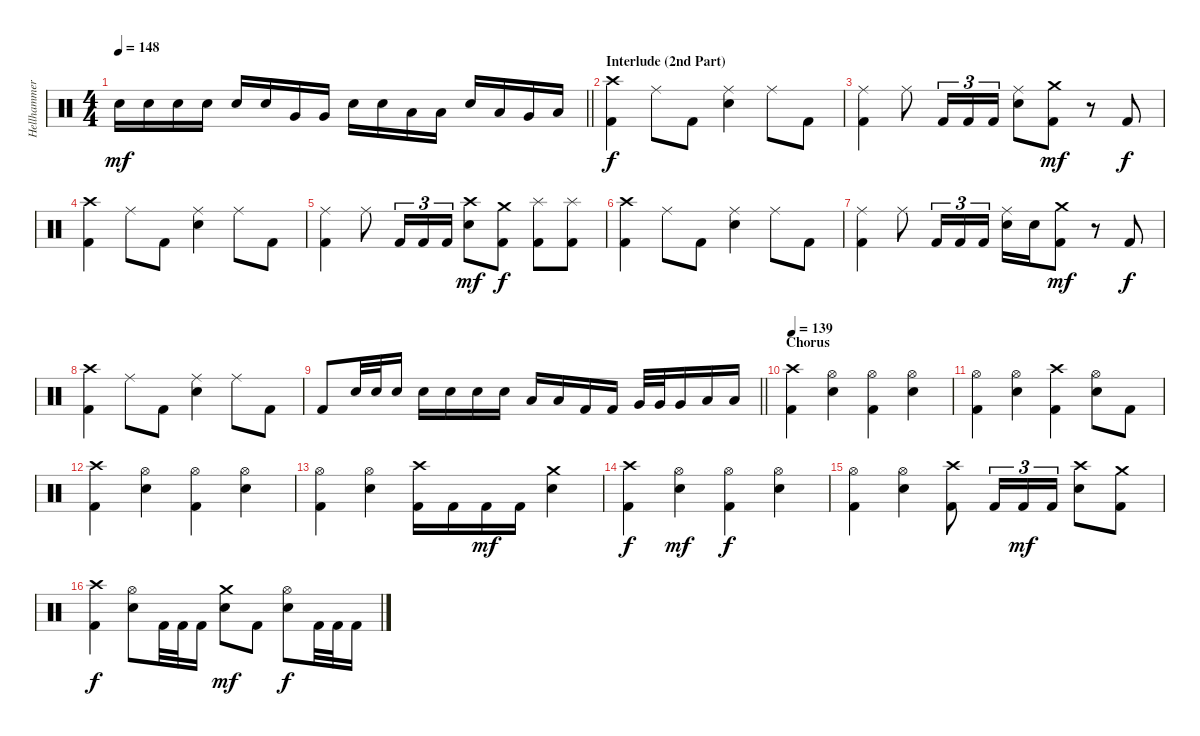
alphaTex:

\track ("Hellhammer" "Hellhammer") {instrument percussion}
\staff {score}
\articulation defaults
\ts (4 4)
\tempo 148
\clef neutral
\barLineRight lightlight
\ks c "Snare (hit) 2".16{dy mf} "Snare (hit) 2".16 "Snare (hit) 2".16 "Snare (hit) 2".16 "Snare (hit) 2".16 "Snare (hit) 2".16 "Very Low Tom (hit)".16 "Very Low Tom (hit)".16 "Snare (hit) 2".16 "Snare (hit) 2".16 "Low Tom (hit)".16 "Low Tom (hit)".16 "Snare (hit) 2".16 "Low Tom (hit)".16 "Very Low Tom (hit)".16 "Low Floor Tom (hit)".16
|
\section ("" "Interlude (2nd Part)")
("Crash high (hit)" "Kick (hit) 2").4{dy f} "Ride (middle)".8 "Kick (hit) 2".8 ("Ride (middle)" "Snare (hit) 2").4 "Ride (middle)".8 "Kick (hit) 2".8 |
("Ride (middle)" "Kick (hit) 2").4 "Ride (middle)".8 "Kick (hit) 2".16{tu (3 2)} "Kick (hit) 2".16{tu (3 2)} "Kick (hit) 2".16{tu (3 2)} ("Ride (middle)" "Snare (hit) 2").8 ("Crash medium (hit)" "Kick (hit) 2").8{dy mf} r.8 "Kick (hit) 2".8{dy f} |
("Crash high (hit)" "Kick (hit) 2").4 "Ride (middle)".8 "Kick (hit) 2".8 ("Ride (middle)" "Snare (hit) 2").4 "Ride (middle)".8 "Kick (hit) 2".8 |
("Ride (middle)" "Kick (hit) 2").4 "Ride (middle)".8 "Kick (hit) 2".16{tu (3 2)} "Kick (hit) 2".16{tu (3 2)} "Kick (hit) 2".16{tu (3 2)} ("Crash high (hit)" "Snare (hit) 2").8{dy mf} ("Crash medium (hit)" "Kick (hit) 2").8{dy f} ("Splash (hit)" "Kick (hit) 2").8 ("Splash (hit)" "Kick (hit) 2").8 |
("Crash high (hit)" "Kick (hit) 2").4 "Ride (middle)".8 "Kick (hit) 2".8 ("Ride (middle)" "Snare (hit) 2").4 "Ride (middle)".8 "Kick (hit) 2".8 |
("Ride (middle)" "Kick (hit) 2").4 "Ride (middle)".8 "Kick (hit) 2".16{tu (3 2)} "Kick (hit) 2".16{tu (3 2)} "Kick (hit) 2".16{tu (3 2)} ("Ride (middle)" "Snare (hit) 2").16 "Snare (hit) 2".16 ("Crash medium (hit)" "Kick (hit) 2").8{dy mf} r.8 "Kick (hit) 2".8{dy f} |
("Crash high (hit)" "Kick (hit) 2").4 "Ride (middle)".8 "Kick (hit) 2".8 ("Ride (middle)" "Snare (hit) 2").4 "Ride (middle)".8 "Kick (hit) 2".8 |
\barLineRight lightlight "Kick (hit) 2".8 "Snare (hit) 2".32 "Snare (hit) 2".32 "Snare (hit) 2".16 "Snare (hit) 2".16 "Snare (hit) 2".16 "Snare (hit) 2".16 "Snare (hit) 2".16 "Low Tom (hit)".16 "Low Tom (hit)".16 "Kick (hit) 2".16 "Kick (hit) 2".16 "Very Low Tom (hit)".32 "Very Low Tom (hit)".32 "Very Low Tom (hit)".16 "Low Floor Tom (hit)".16 "Low Floor Tom (hit)".16
|
\section ("" "Chorus")
\tempo 139
("Crash high (hit)" "Kick (hit) 2").4 ("Hi-Hat (open)" "Snare (hit) 2").4 ("Hi-Hat (open)" "Kick (hit) 2").4 ("Hi-Hat (open)" "Snare (hit) 2").4 |
("Hi-Hat (open)" "Kick (hit) 2").4 ("Hi-Hat (open)" "Snare (hit) 2").4 ("Crash high (hit)" "Kick (hit) 2").4 ("Hi-Hat (open)" "Snare (hit) 2").8 "Kick (hit) 2".8 |
("Crash high (hit)" "Kick (hit) 2").4 ("Hi-Hat (open)" "Snare (hit) 2").4 ("Hi-Hat (open)" "Kick (hit) 2").4 ("Hi-Hat (open)" "Snare (hit) 2").4 |
("Hi-Hat (open)" "Kick (hit) 2").4 ("Hi-Hat (open)" "Snare (hit) 2").4 ("Crash high (hit)" "Kick (hit) 2").16 "Kick (hit) 2".16 "Kick (hit) 2".16{dy mf} "Kick (hit) 2".16 ("Crash medium (hit)" "Snare (hit) 2").4 |
("Crash high (hit)" "Kick (hit) 2").4{dy f} ("Hi-Hat (open)" "Snare (hit) 2").4{dy mf} ("Hi-Hat (open)" "Kick (hit) 2").4{dy f} ("Hi-Hat (open)" "Snare (hit) 2").4 |
("Hi-Hat (open)" "Kick (hit) 2").4 ("Hi-Hat (open)" "Snare (hit) 2").4 ("Crash high (hit)" "Kick (hit) 2").8 "Kick (hit) 2".16{tu (3 2)} "Kick (hit) 2".16{tu (3 2) dy mf} "Kick (hit) 2".16{tu (3 2)} ("Crash high (hit)" "Snare (hit) 2").8 ("Crash medium (hit)" "Kick (hit) 2").8 |
("Crash high (hit)" "Kick (hit) 2").4{dy f} ("Hi-Hat (open)" "Snare (hit) 2").8 "Kick (hit) 2".32 "Kick (hit) 2".32 "Kick (hit) 2".16 ("Crash medium (hit)" "Snare (hit) 2").8{dy mf} "Kick (hit) 2".8 ("Hi-Hat (open)" "Snare (hit) 2").8{dy f} "Kick (hit) 2".32 "Kick (hit) 2".32 "Kick (hit) 2".16
